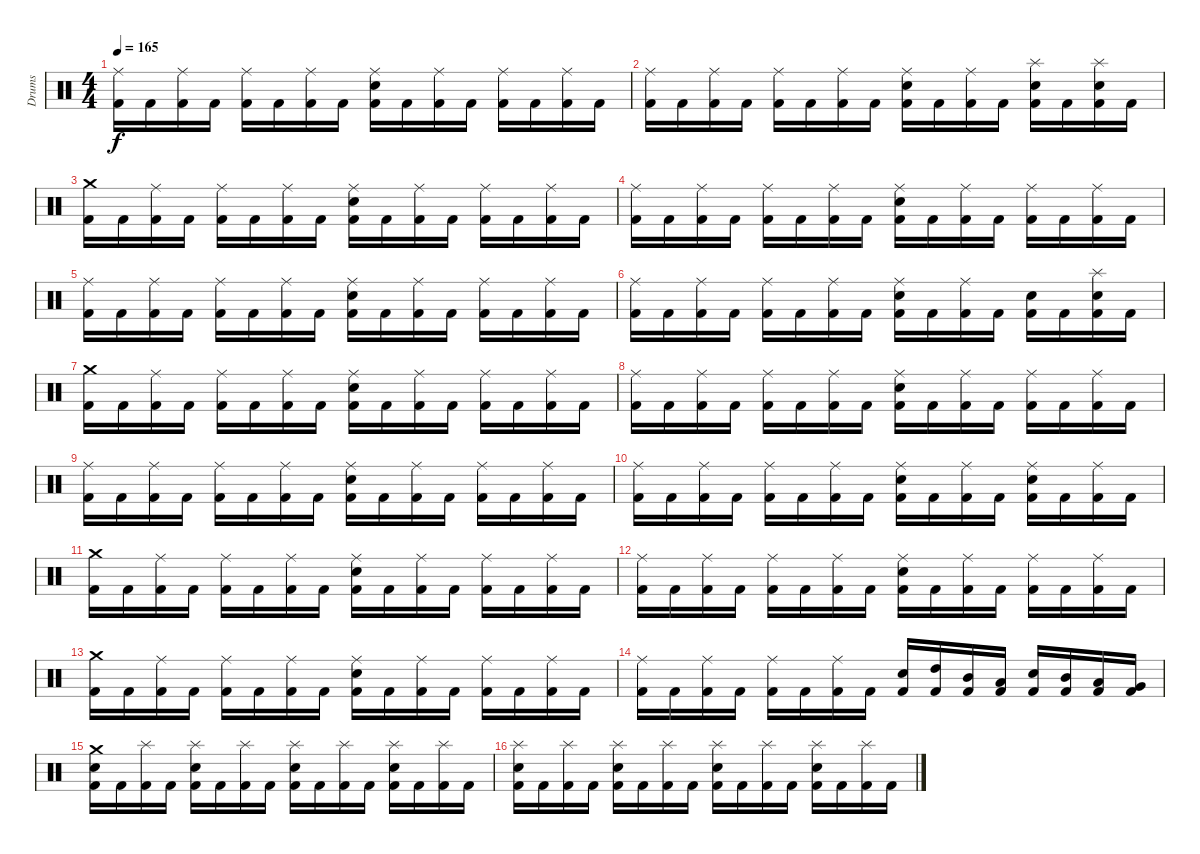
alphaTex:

\track ("Drums" "Drums") {instrument percussion}
\staff {score}
\articulation defaults
\ts (4 4)
\tempo 165
\clef neutral
\ks c
("Ride (middle)" "Kick (hit) 2").16{dy f} "Kick (hit) 2".16 ("Ride (middle)" "Kick (hit) 2").16 "Kick (hit) 2".16 ("Ride (middle)" "Kick (hit) 2").16 "Kick (hit) 2".16 ("Ride (middle)" "Kick (hit) 2").16 "Kick (hit) 2".16 ("Ride (middle)" "Snare (hit) 2" "Kick (hit) 2").16 "Kick (hit) 2".16 ("Ride (middle)" "Kick (hit) 2").16 "Kick (hit) 2".16 ("Ride (middle)" "Kick (hit) 2").16 "Kick (hit) 2".16 ("Ride (middle)" "Kick (hit) 2").16 "Kick (hit) 2".16 |
("Ride (middle)" "Kick (hit) 2").16 "Kick (hit) 2".16 ("Ride (middle)" "Kick (hit) 2").16 "Kick (hit) 2".16 ("Ride (middle)" "Kick (hit) 2").16 "Kick (hit) 2".16 ("Ride (middle)" "Kick (hit) 2").16 "Kick (hit) 2".16 ("Ride (middle)" "Snare (hit) 2" "Kick (hit) 2").16 "Kick (hit) 2".16 ("Ride (middle)" "Kick (hit) 2").16 "Kick (hit) 2".16 ("Splash (hit)" "Snare (hit) 2" "Kick (hit) 2").16 "Kick (hit) 2".16 ("Splash (hit)" "Snare (hit) 2" "Kick (hit) 2").16 "Kick (hit) 2".16 |
("Crash medium (hit)" "Kick (hit) 2").16 "Kick (hit) 2".16 ("Ride (middle)" "Kick (hit) 2").16 "Kick (hit) 2".16 ("Ride (middle)" "Kick (hit) 2").16 "Kick (hit) 2".16 ("Ride (middle)" "Kick (hit) 2").16 "Kick (hit) 2".16 ("Ride (middle)" "Snare (hit) 2" "Kick (hit) 2").16 "Kick (hit) 2".16 ("Ride (middle)" "Kick (hit) 2").16 "Kick (hit) 2".16 ("Ride (middle)" "Kick (hit) 2").16 "Kick (hit) 2".16 ("Ride (middle)" "Kick (hit) 2").16 "Kick (hit) 2".16 |
("Ride (middle)" "Kick (hit) 2").16 "Kick (hit) 2".16 ("Ride (middle)" "Kick (hit) 2").16 "Kick (hit) 2".16 ("Ride (middle)" "Kick (hit) 2").16 "Kick (hit) 2".16 ("Ride (middle)" "Kick (hit) 2").16 "Kick (hit) 2".16 ("Ride (middle)" "Snare (hit) 2" "Kick (hit) 2").16 "Kick (hit) 2".16 ("Ride (middle)" "Kick (hit) 2").16 "Kick (hit) 2".16 ("Ride (middle)" "Kick (hit) 2").16 "Kick (hit) 2".16 ("Ride (middle)" "Kick (hit) 2").16 "Kick (hit) 2".16 |
("Ride (middle)" "Kick (hit) 2").16 "Kick (hit) 2".16 ("Ride (middle)" "Kick (hit) 2").16 "Kick (hit) 2".16 ("Ride (middle)" "Kick (hit) 2").16 "Kick (hit) 2".16 ("Ride (middle)" "Kick (hit) 2").16 "Kick (hit) 2".16 ("Ride (middle)" "Snare (hit) 2" "Kick (hit) 2").16 "Kick (hit) 2".16 ("Ride (middle)" "Kick (hit) 2").16 "Kick (hit) 2".16 ("Ride (middle)" "Kick (hit) 2").16 "Kick (hit) 2".16 ("Ride (middle)" "Kick (hit) 2").16 "Kick (hit) 2".16 |
("Ride (middle)" "Kick (hit) 2").16 "Kick (hit) 2".16 ("Ride (middle)" "Kick (hit) 2").16 "Kick (hit) 2".16 ("Ride (middle)" "Kick (hit) 2").16 "Kick (hit) 2".16 ("Ride (middle)" "Kick (hit) 2").16 "Kick (hit) 2".16 ("Ride (middle)" "Snare (hit) 2" "Kick (hit) 2").16 "Kick (hit) 2".16 ("Ride (middle)" "Kick (hit) 2").16 "Kick (hit) 2".16 ("Snare (hit) 2" "Kick (hit) 2").16 "Kick (hit) 2".16 ("Splash (hit)" "Snare (hit) 2" "Kick (hit) 2").16 "Kick (hit) 2".16 |
("Crash medium (hit)" "Kick (hit) 2").16 "Kick (hit) 2".16 ("Ride (middle)" "Kick (hit) 2").16 "Kick (hit) 2".16 ("Ride (middle)" "Kick (hit) 2").16 "Kick (hit) 2".16 ("Ride (middle)" "Kick (hit) 2").16 "Kick (hit) 2".16 ("Ride (middle)" "Snare (hit) 2" "Kick (hit) 2").16 "Kick (hit) 2".16 ("Ride (middle)" "Kick (hit) 2").16 "Kick (hit) 2".16 ("Ride (middle)" "Kick (hit) 2").16 "Kick (hit) 2".16 ("Ride (middle)" "Kick (hit) 2").16 "Kick (hit) 2".16 |
("Ride (middle)" "Kick (hit) 2").16 "Kick (hit) 2".16 ("Ride (middle)" "Kick (hit) 2").16 "Kick (hit) 2".16 ("Ride (middle)" "Kick (hit) 2").16 "Kick (hit) 2".16 ("Ride (middle)" "Kick (hit) 2").16 "Kick (hit) 2".16 ("Ride (middle)" "Snare (hit) 2" "Kick (hit) 2").16 "Kick (hit) 2".16 ("Ride (middle)" "Kick (hit) 2").16 "Kick (hit) 2".16 ("Ride (middle)" "Kick (hit) 2").16 "Kick (hit) 2".16 ("Ride (middle)" "Kick (hit) 2").16 "Kick (hit) 2".16 |
("Ride (middle)" "Kick (hit) 2").16 "Kick (hit) 2".16 ("Ride (middle)" "Kick (hit) 2").16 "Kick (hit) 2".16 ("Ride (middle)" "Kick (hit) 2").16 "Kick (hit) 2".16 ("Ride (middle)" "Kick (hit) 2").16 "Kick (hit) 2".16 ("Ride (middle)" "Snare (hit) 2" "Kick (hit) 2").16 "Kick (hit) 2".16 ("Ride (middle)" "Kick (hit) 2").16 "Kick (hit) 2".16 ("Ride (middle)" "Kick (hit) 2").16 "Kick (hit) 2".16 ("Ride (middle)" "Kick (hit) 2").16 "Kick (hit) 2".16 |
("Ride (middle)" "Kick (hit) 2").16 "Kick (hit) 2".16 ("Ride (middle)" "Kick (hit) 2").16 "Kick (hit) 2".16 ("Ride (middle)" "Kick (hit) 2").16 "Kick (hit) 2".16 ("Ride (middle)" "Kick (hit) 2").16 "Kick (hit) 2".16 ("Ride (middle)" "Snare (hit) 2" "Kick (hit) 2").16 "Kick (hit) 2".16 ("Ride (middle)" "Kick (hit) 2").16 "Kick (hit) 2".16 ("Ride (middle)" "Snare (hit) 2" "Kick (hit) 2").16 "Kick (hit) 2".16 ("Ride (middle)" "Kick (hit) 2").16 "Kick (hit) 2".16 |
("Crash medium (hit)" "Kick (hit) 2").16 "Kick (hit) 2".16 ("Ride (middle)" "Kick (hit) 2").16 "Kick (hit) 2".16 ("Ride (middle)" "Kick (hit) 2").16 "Kick (hit) 2".16 ("Ride (middle)" "Kick (hit) 2").16 "Kick (hit) 2".16 ("Ride (middle)" "Snare (hit) 2" "Kick (hit) 2").16 "Kick (hit) 2".16 ("Ride (middle)" "Kick (hit) 2").16 "Kick (hit) 2".16 ("Ride (middle)" "Kick (hit) 2").16 "Kick (hit) 2".16 ("Ride (middle)" "Kick (hit) 2").16 "Kick (hit) 2".16 |
("Ride (middle)" "Kick (hit) 2").16 "Kick (hit) 2".16 ("Ride (middle)" "Kick (hit) 2").16 "Kick (hit) 2".16 ("Ride (middle)" "Kick (hit) 2").16 "Kick (hit) 2".16 ("Ride (middle)" "Kick (hit) 2").16 "Kick (hit) 2".16 ("Ride (middle)" "Snare (hit) 2" "Kick (hit) 2").16 "Kick (hit) 2".16 ("Ride (middle)" "Kick (hit) 2").16 "Kick (hit) 2".16 ("Ride (middle)" "Kick (hit) 2").16 "Kick (hit) 2".16 ("Ride (middle)" "Kick (hit) 2").16 "Kick (hit) 2".16 |
("Crash medium (hit)" "Kick (hit) 2").16 "Kick (hit) 2".16 ("Ride (middle)" "Kick (hit) 2").16 "Kick (hit) 2".16 ("Ride (middle)" "Kick (hit) 2").16 "Kick (hit) 2".16 ("Ride (middle)" "Kick (hit) 2").16 "Kick (hit) 2".16 ("Ride (middle)" "Snare (hit) 2" "Kick (hit) 2").16 "Kick (hit) 2".16 ("Ride (middle)" "Kick (hit) 2").16 "Kick (hit) 2".16 ("Ride (middle)" "Kick (hit) 2").16 "Kick (hit) 2".16 ("Ride (middle)" "Kick (hit) 2").16 "Kick (hit) 2".16 |
("Ride (middle)" "Kick (hit) 2").16 "Kick (hit) 2".16 ("Ride (middle)" "Kick (hit) 2").16 "Kick (hit) 2".16 ("Ride (middle)" "Kick (hit) 2").16 "Kick (hit) 2".16 ("Ride (middle)" "Kick (hit) 2").16 "Kick (hit) 2".16 ("Snare (hit) 2" "Kick (hit) 2").16 ("High Tom (hit)" "Kick (hit) 2").16 ("Mid Tom (hit)" "Kick (hit) 2").16 ("Low Tom (hit)" "Kick (hit) 2").16 ("Snare (hit) 2" "Kick (hit) 2").16 ("Mid Tom (hit)" "Kick (hit) 2").16 ("Low Tom (hit)" "Kick (hit) 2").16 ("Very Low Tom (hit)" "Kick (hit) 2").16 |
("Crash medium (hit)" "Snare (hit) 2" "Kick (hit) 2").16 "Kick (hit) 2".16 ("Splash (hit)" "Kick (hit) 2").16 "Kick (hit) 2".16 ("Splash (hit)" "Snare (hit) 2" "Kick (hit) 2").16 "Kick (hit) 2".16 ("Splash (hit)" "Kick (hit) 2").16 "Kick (hit) 2".16 ("Splash (hit)" "Snare (hit) 2" "Kick (hit) 2").16 "Kick (hit) 2".16 ("Splash (hit)" "Kick (hit) 2").16 "Kick (hit) 2".16 ("Splash (hit)" "Snare (hit) 2" "Kick (hit) 2").16 "Kick (hit) 2".16 ("Splash (hit)" "Kick (hit) 2").16 "Kick (hit) 2".16 |
("Splash (hit)" "Snare (hit) 2" "Kick (hit) 2").16 "Kick (hit) 2".16 ("Splash (hit)" "Kick (hit) 2").16 "Kick (hit) 2".16 ("Splash (hit)" "Snare (hit) 2" "Kick (hit) 2").16 "Kick (hit) 2".16 ("Splash (hit)" "Kick (hit) 2").16 "Kick (hit) 2".16 ("Splash (hit)" "Snare (hit) 2" "Kick (hit) 2").16 "Kick (hit) 2".16 ("Splash (hit)" "Kick (hit) 2").16 "Kick (hit) 2".16 ("Splash (hit)" "Snare (hit) 2" "Kick (hit) 2").16 "Kick (hit) 2".16 ("Splash (hit)" "Kick (hit) 2").16 "Kick (hit) 2".16
